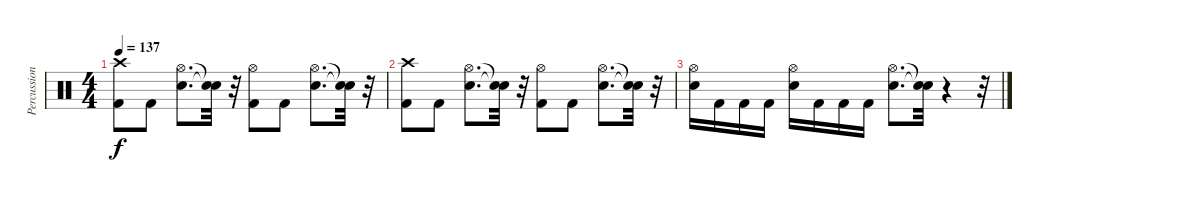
\track ("Percussion" "Percussion") {instrument percussion}
\staff {score}
\articulation defaults
\ts (4 4)
\tempo 137
\clef neutral
\ks c
("Kick (hit) 2" "Crash high (hit)").8{dy f} "Kick (hit) 2".8 ("Snare (hit) 2" "Hi-Hat (open)").8{d} ("Snare (hit)"{t} "Snare (hit)"{t}).32 r.32 ("Kick (hit) 2" "Hi-Hat (open)").8 "Kick (hit) 2".8 ("Hi-Hat (open)" "Snare (hit) 2").8{d} ("Snare (hit)"{t} "Snare (hit)"{t}).32 r.32 |
("Kick (hit) 2" "Crash high (hit)").8 "Kick (hit) 2".8 ("Snare (hit) 2" "Hi-Hat (open)").8{d} ("Snare (hit)"{t} "Snare (hit)"{t}).32 r.32 ("Kick (hit) 2" "Hi-Hat (open)").8 "Kick (hit) 2".8 ("Hi-Hat (open)" "Snare (hit) 2").8{d} ("Snare (hit)"{t} "Snare (hit)"{t}).32 r.32 |
("Snare (hit) 2" "Hi-Hat (open)").16 "Kick (hit) 2".16 "Kick (hit) 2".16 "Kick (hit) 2".16 ("Snare (hit) 2" "Hi-Hat (open)").16 "Kick (hit) 2".16 "Kick (hit) 2".16 "Kick (hit) 2".16 ("Snare (hit) 2" "Hi-Hat (open)").8{d} ("Snare (hit)"{t} "Snare (hit)"{t}).32 r.4 r.32
